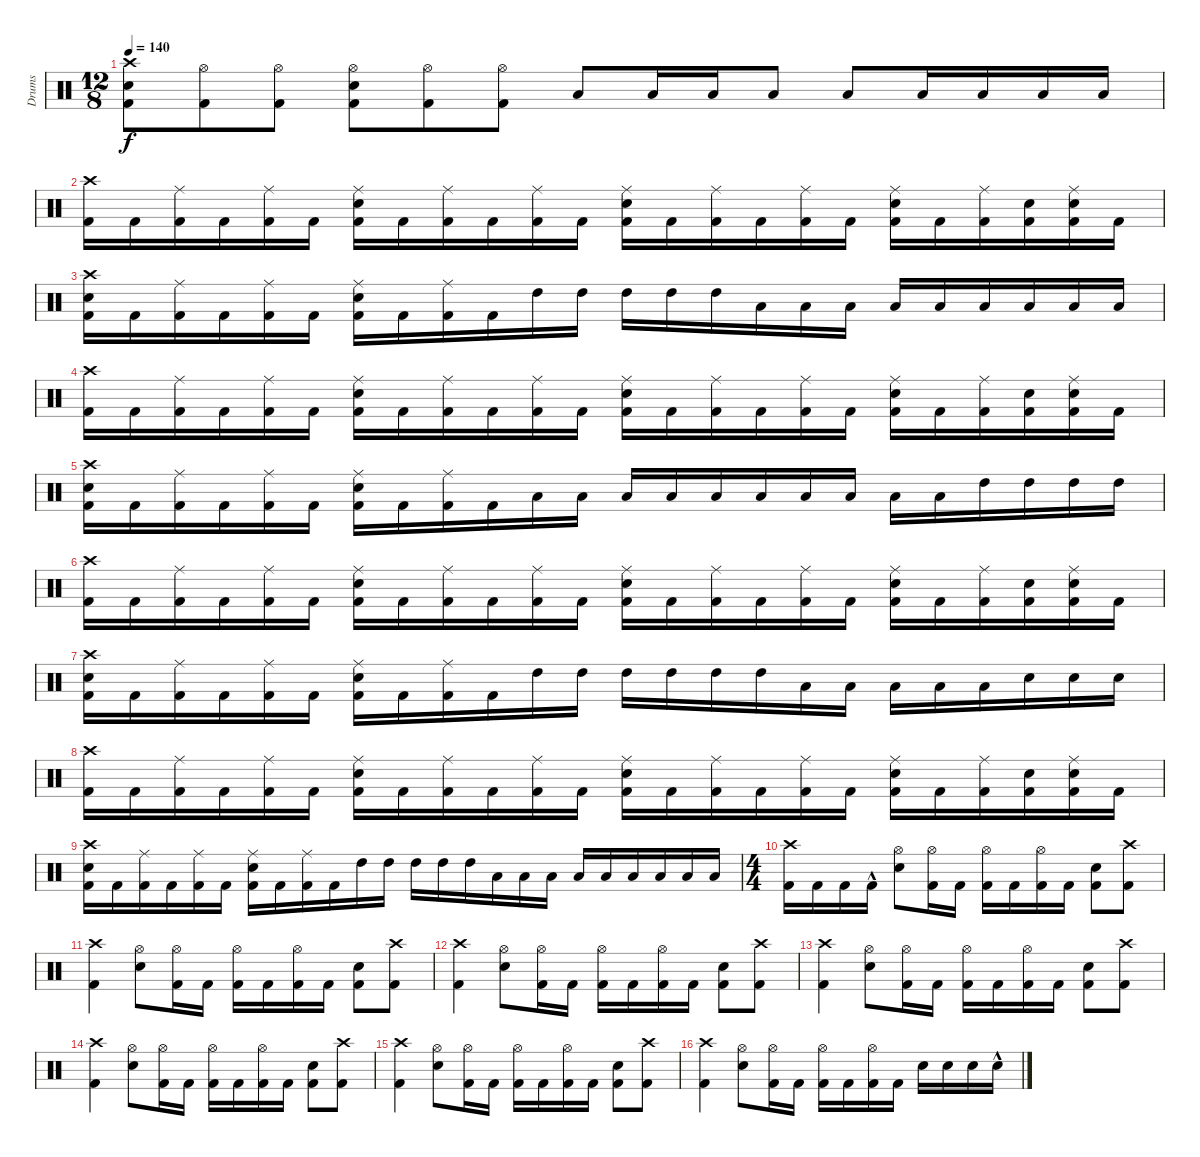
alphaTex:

\track ("Drums" "Drums") {instrument percussion}
\staff {score}
\articulation defaults
\ts (12 8)
\tempo 140
\clef neutral
\ks c
("Snare (hit) 2" "Crash high (hit)" "Kick (hit) 2").8{dy f} ("Kick (hit) 2" "Hi-Hat (open)").8 ("Hi-Hat (open)" "Kick (hit) 2").8 ("Snare (hit) 2" "Hi-Hat (open)" "Kick (hit) 2").8 ("Kick (hit) 2" "Hi-Hat (open)").8 ("Hi-Hat (open)" "Kick (hit) 2").8 "Low Tom (hit)".8 "Low Tom (hit)".16 "Low Tom (hit)".16 "Low Tom (hit)".8 "Low Floor Tom (hit)".8 "Low Floor Tom (hit)".16 "Low Floor Tom (hit)".16 "Low Floor Tom (hit)".16 "Low Floor Tom (hit)".16 |
("Crash high (hit)" "Kick (hit) 2").16 "Kick (hit) 2".16 ("Kick (hit) 2" "Ride (middle)").16 "Kick (hit) 2".16 ("Kick (hit) 2" "Ride (middle)").16 "Kick (hit) 2".16 ("Ride (middle)" "Kick (hit) 2" "Snare (hit) 2").16 "Kick (hit) 2".16 ("Ride (middle)" "Kick (hit) 2").16 "Kick (hit) 2".16 ("Kick (hit) 2" "Ride (middle)").16 "Kick (hit) 2".16 ("Ride (middle)" "Kick (hit) 2" "Snare (hit) 2").16 "Kick (hit) 2".16 ("Ride (middle)" "Kick (hit) 2").16 "Kick (hit) 2".16 ("Kick (hit) 2" "Ride (middle)").16 "Kick (hit) 2".16 ("Ride (middle)" "Kick (hit) 2" "Snare (hit) 2").16 "Kick (hit) 2".16 ("Ride (middle)" "Kick (hit) 2").16 ("Kick (hit) 2" "Snare (hit) 2").16 ("Snare (hit) 2" "Kick (hit) 2" "Ride (middle)").16 "Kick (hit) 2".16 |
("Crash high (hit)" "Kick (hit) 2" "Snare (hit) 2").16 "Kick (hit) 2".16 ("Kick (hit) 2" "Ride (middle)").16 "Kick (hit) 2".16 ("Ride (middle)" "Kick (hit) 2").16 "Kick (hit) 2".16 ("Ride (middle)" "Snare (hit) 2" "Kick (hit) 2").16 "Kick (hit) 2".16 ("Kick (hit) 2" "Ride (middle)").16 "Kick (hit) 2".16 "High Tom (hit)".16 "High Tom (hit)".16 "High Tom (hit)".16 "High Tom (hit)".16 "High Tom (hit)".16 "Low Tom (hit)".16 "Low Tom (hit)".16 "Low Tom (hit)".16 "Low Tom (hit)".16 "Low Tom (hit)".16 "Low Tom (hit)".16 "Low Floor Tom (hit)".16 "Low Floor Tom (hit)".16 "Low Floor Tom (hit)".16 |
("Crash high (hit)" "Kick (hit) 2").16 "Kick (hit) 2".16 ("Kick (hit) 2" "Ride (middle)").16 "Kick (hit) 2".16 ("Kick (hit) 2" "Ride (middle)").16 "Kick (hit) 2".16 ("Ride (middle)" "Kick (hit) 2" "Snare (hit) 2").16 "Kick (hit) 2".16 ("Ride (middle)" "Kick (hit) 2").16 "Kick (hit) 2".16 ("Kick (hit) 2" "Ride (middle)").16 "Kick (hit) 2".16 ("Ride (middle)" "Kick (hit) 2" "Snare (hit) 2").16 "Kick (hit) 2".16 ("Ride (middle)" "Kick (hit) 2").16 "Kick (hit) 2".16 ("Kick (hit) 2" "Ride (middle)").16 "Kick (hit) 2".16 ("Ride (middle)" "Kick (hit) 2" "Snare (hit) 2").16 "Kick (hit) 2".16 ("Ride (middle)" "Kick (hit) 2").16 ("Kick (hit) 2" "Snare (hit) 2").16 ("Snare (hit) 2" "Kick (hit) 2" "Ride (middle)").16 "Kick (hit) 2".16 |
("Crash high (hit)" "Kick (hit) 2" "Snare (hit) 2").16 "Kick (hit) 2".16 ("Kick (hit) 2" "Ride (middle)").16 "Kick (hit) 2".16 ("Ride (middle)" "Kick (hit) 2").16 "Kick (hit) 2".16 ("Ride (middle)" "Snare (hit) 2" "Kick (hit) 2").16 "Kick (hit) 2".16 ("Kick (hit) 2" "Ride (middle)").16 "Kick (hit) 2".16 "Low Floor Tom (hit)".16 "Low Floor Tom (hit)".16 "Low Floor Tom (hit)".16 "Low Floor Tom (hit)".16 "Low Floor Tom (hit)".16 "Low Tom (hit)".16 "Low Tom (hit)".16 "Low Tom (hit)".16 "Low Tom (hit)".16 "Low Tom (hit)".16 "High Tom (hit)".16 "High Tom (hit)".16 "High Tom (hit)".16 "High Tom (hit)".16 |
("Crash high (hit)" "Kick (hit) 2").16 "Kick (hit) 2".16 ("Kick (hit) 2" "Ride (middle)").16 "Kick (hit) 2".16 ("Kick (hit) 2" "Ride (middle)").16 "Kick (hit) 2".16 ("Ride (middle)" "Kick (hit) 2" "Snare (hit) 2").16 "Kick (hit) 2".16 ("Ride (middle)" "Kick (hit) 2").16 "Kick (hit) 2".16 ("Kick (hit) 2" "Ride (middle)").16 "Kick (hit) 2".16 ("Ride (middle)" "Kick (hit) 2" "Snare (hit) 2").16 "Kick (hit) 2".16 ("Ride (middle)" "Kick (hit) 2").16 "Kick (hit) 2".16 ("Kick (hit) 2" "Ride (middle)").16 "Kick (hit) 2".16 ("Ride (middle)" "Kick (hit) 2" "Snare (hit) 2").16 "Kick (hit) 2".16 ("Ride (middle)" "Kick (hit) 2").16 ("Kick (hit) 2" "Snare (hit) 2").16 ("Snare (hit) 2" "Kick (hit) 2" "Ride (middle)").16 "Kick (hit) 2".16 |
("Crash high (hit)" "Kick (hit) 2" "Snare (hit) 2").16 "Kick (hit) 2".16 ("Kick (hit) 2" "Ride (middle)").16 "Kick (hit) 2".16 ("Ride (middle)" "Kick (hit) 2").16 "Kick (hit) 2".16 ("Ride (middle)" "Snare (hit) 2" "Kick (hit) 2").16 "Kick (hit) 2".16 ("Kick (hit) 2" "Ride (middle)").16 "Kick (hit) 2".16 "High Tom (hit)".16 "High Tom (hit)".16 "High Tom (hit)".16 "High Tom (hit)".16 "High Tom (hit)".16 "High Tom (hit)".16 "Low Floor Tom (hit)".16 "Low Floor Tom (hit)".16 "Low Floor Tom (hit)".16 "Low Floor Tom (hit)".16 "Low Floor Tom (hit)".16 "Snare (hit) 2".16 "Snare (hit) 2".16 "Snare (hit) 2".16 |
("Crash high (hit)" "Kick (hit) 2").16 "Kick (hit) 2".16 ("Kick (hit) 2" "Ride (middle)").16 "Kick (hit) 2".16 ("Kick (hit) 2" "Ride (middle)").16 "Kick (hit) 2".16 ("Ride (middle)" "Kick (hit) 2" "Snare (hit) 2").16 "Kick (hit) 2".16 ("Ride (middle)" "Kick (hit) 2").16 "Kick (hit) 2".16 ("Kick (hit) 2" "Ride (middle)").16 "Kick (hit) 2".16 ("Ride (middle)" "Kick (hit) 2" "Snare (hit) 2").16 "Kick (hit) 2".16 ("Ride (middle)" "Kick (hit) 2").16 "Kick (hit) 2".16 ("Kick (hit) 2" "Ride (middle)").16 "Kick (hit) 2".16 ("Ride (middle)" "Kick (hit) 2" "Snare (hit) 2").16 "Kick (hit) 2".16 ("Ride (middle)" "Kick (hit) 2").16 ("Kick (hit) 2" "Snare (hit) 2").16 ("Snare (hit) 2" "Kick (hit) 2" "Ride (middle)").16 "Kick (hit) 2".16 |
("Crash high (hit)" "Kick (hit) 2" "Snare (hit) 2").16 "Kick (hit) 2".16 ("Kick (hit) 2" "Ride (middle)").16 "Kick (hit) 2".16 ("Ride (middle)" "Kick (hit) 2").16 "Kick (hit) 2".16 ("Ride (middle)" "Snare (hit) 2" "Kick (hit) 2").16 "Kick (hit) 2".16 ("Kick (hit) 2" "Ride (middle)").16 "Kick (hit) 2".16 "High Tom (hit)".16 "High Tom (hit)".16 "High Tom (hit)".16 "High Tom (hit)".16 "High Tom (hit)".16 "Low Tom (hit)".16 "Low Tom (hit)".16 "Low Tom (hit)".16 "Low Tom (hit)".16 "Low Tom (hit)".16 "Low Tom (hit)".16 "Low Floor Tom (hit)".16 "Low Floor Tom (hit)".16 "Low Floor Tom (hit)".16 |
\ts (4 4)
("Crash high (hit)" "Kick (hit) 2").16 "Kick (hit) 2".16 "Kick (hit) 2".16 "Kick (hit) 2"{hac}.16 ("Hi-Hat (open)" "Snare (hit) 2").8 ("Hi-Hat (open)" "Kick (hit) 2").16 "Kick (hit) 2".16 ("Kick (hit) 2" "Hi-Hat (open)").16 "Kick (hit) 2".16 ("Kick (hit) 2" "Hi-Hat (open)").16 "Kick (hit) 2".16 ("Kick (hit) 2" "Snare (hit) 2").8 ("Crash high (hit)" "Kick (hit) 2").8 |
("Kick (hit) 2" "Crash high (hit)").4 ("Snare (hit) 2" "Hi-Hat (open)").8 ("Kick (hit) 2" "Hi-Hat (open)").16 "Kick (hit) 2".16 ("Hi-Hat (open)" "Kick (hit) 2").16 "Kick (hit) 2".16 ("Hi-Hat (open)" "Kick (hit) 2").16 "Kick (hit) 2".16 ("Snare (hit) 2" "Kick (hit) 2").8 ("Kick (hit) 2" "Crash high (hit)").8 |
("Kick (hit) 2" "Crash high (hit)").4 ("Snare (hit) 2" "Hi-Hat (open)").8 ("Kick (hit) 2" "Hi-Hat (open)").16 "Kick (hit) 2".16 ("Hi-Hat (open)" "Kick (hit) 2").16 "Kick (hit) 2".16 ("Hi-Hat (open)" "Kick (hit) 2").16 "Kick (hit) 2".16 ("Snare (hit) 2" "Kick (hit) 2").8 ("Kick (hit) 2" "Crash high (hit)").8 |
("Kick (hit) 2" "Crash high (hit)").4 ("Snare (hit) 2" "Hi-Hat (open)").8 ("Kick (hit) 2" "Hi-Hat (open)").16 "Kick (hit) 2".16 ("Hi-Hat (open)" "Kick (hit) 2").16 "Kick (hit) 2".16 ("Hi-Hat (open)" "Kick (hit) 2").16 "Kick (hit) 2".16 ("Snare (hit) 2" "Kick (hit) 2").8 ("Kick (hit) 2" "Crash high (hit)").8 |
("Kick (hit) 2" "Crash high (hit)").4 ("Snare (hit) 2" "Hi-Hat (open)").8 ("Kick (hit) 2" "Hi-Hat (open)").16 "Kick (hit) 2".16 ("Hi-Hat (open)" "Kick (hit) 2").16 "Kick (hit) 2".16 ("Hi-Hat (open)" "Kick (hit) 2").16 "Kick (hit) 2".16 ("Snare (hit) 2" "Kick (hit) 2").8 ("Kick (hit) 2" "Crash high (hit)").8 |
("Kick (hit) 2" "Crash high (hit)").4 ("Snare (hit) 2" "Hi-Hat (open)").8 ("Kick (hit) 2" "Hi-Hat (open)").16 "Kick (hit) 2".16 ("Hi-Hat (open)" "Kick (hit) 2").16 "Kick (hit) 2".16 ("Hi-Hat (open)" "Kick (hit) 2").16 "Kick (hit) 2".16 ("Snare (hit) 2" "Kick (hit) 2").8 ("Kick (hit) 2" "Crash high (hit)").8 |
("Kick (hit) 2" "Crash high (hit)").4 ("Snare (hit) 2" "Hi-Hat (open)").8 ("Kick (hit) 2" "Hi-Hat (open)").16 "Kick (hit) 2".16 ("Hi-Hat (open)" "Kick (hit) 2").16 "Kick (hit) 2".16 ("Hi-Hat (open)" "Kick (hit) 2").16 "Kick (hit) 2".16 "Snare (hit) 2".16 "Snare (hit) 2".16 "Snare (hit) 2".16 "Snare (hit) 2"{hac}.16
